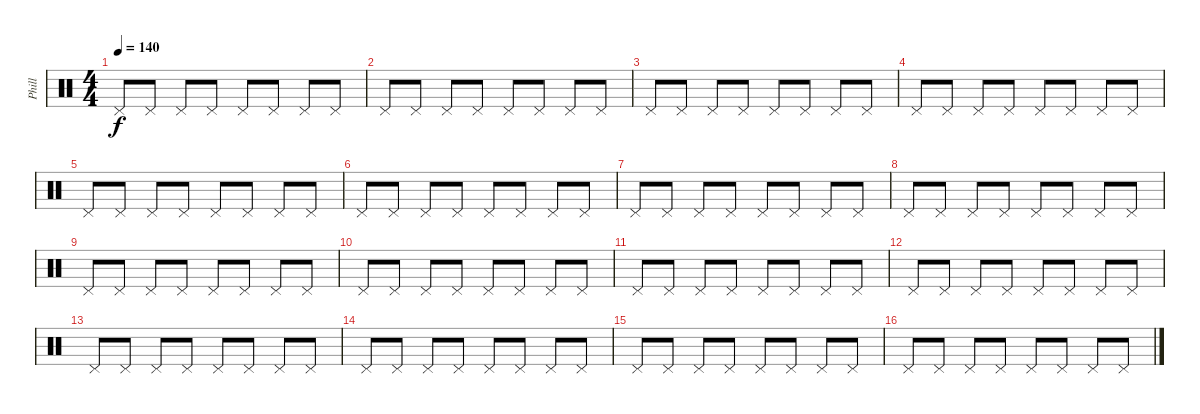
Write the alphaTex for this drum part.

\track ("Phill" "Phill") {instrument percussion}
\staff {score}
\articulation defaults
\ts (4 4)
\tempo 140
\clef neutral
\ks c "Pedal Hi-Hat (hit)".8{dy f} "Pedal Hi-Hat (hit)".8 "Pedal Hi-Hat (hit)".8 "Pedal Hi-Hat (hit)".8 "Pedal Hi-Hat (hit)".8 "Pedal Hi-Hat (hit)".8 "Pedal Hi-Hat (hit)".8 "Pedal Hi-Hat (hit)".8
|
"Pedal Hi-Hat (hit)".8 "Pedal Hi-Hat (hit)".8 "Pedal Hi-Hat (hit)".8 "Pedal Hi-Hat (hit)".8 "Pedal Hi-Hat (hit)".8 "Pedal Hi-Hat (hit)".8 "Pedal Hi-Hat (hit)".8 "Pedal Hi-Hat (hit)".8 |
"Pedal Hi-Hat (hit)".8 "Pedal Hi-Hat (hit)".8 "Pedal Hi-Hat (hit)".8 "Pedal Hi-Hat (hit)".8 "Pedal Hi-Hat (hit)".8 "Pedal Hi-Hat (hit)".8 "Pedal Hi-Hat (hit)".8 "Pedal Hi-Hat (hit)".8 |
"Pedal Hi-Hat (hit)".8 "Pedal Hi-Hat (hit)".8 "Pedal Hi-Hat (hit)".8 "Pedal Hi-Hat (hit)".8 "Pedal Hi-Hat (hit)".8 "Pedal Hi-Hat (hit)".8 "Pedal Hi-Hat (hit)".8 "Pedal Hi-Hat (hit)".8 |
"Pedal Hi-Hat (hit)".8 "Pedal Hi-Hat (hit)".8 "Pedal Hi-Hat (hit)".8 "Pedal Hi-Hat (hit)".8 "Pedal Hi-Hat (hit)".8 "Pedal Hi-Hat (hit)".8 "Pedal Hi-Hat (hit)".8 "Pedal Hi-Hat (hit)".8 |
"Pedal Hi-Hat (hit)".8 "Pedal Hi-Hat (hit)".8 "Pedal Hi-Hat (hit)".8 "Pedal Hi-Hat (hit)".8 "Pedal Hi-Hat (hit)".8 "Pedal Hi-Hat (hit)".8 "Pedal Hi-Hat (hit)".8 "Pedal Hi-Hat (hit)".8 |
"Pedal Hi-Hat (hit)".8 "Pedal Hi-Hat (hit)".8 "Pedal Hi-Hat (hit)".8 "Pedal Hi-Hat (hit)".8 "Pedal Hi-Hat (hit)".8 "Pedal Hi-Hat (hit)".8 "Pedal Hi-Hat (hit)".8 "Pedal Hi-Hat (hit)".8 |
"Pedal Hi-Hat (hit)".8 "Pedal Hi-Hat (hit)".8 "Pedal Hi-Hat (hit)".8 "Pedal Hi-Hat (hit)".8 "Pedal Hi-Hat (hit)".8 "Pedal Hi-Hat (hit)".8 "Pedal Hi-Hat (hit)".8 "Pedal Hi-Hat (hit)".8 |
"Pedal Hi-Hat (hit)".8 "Pedal Hi-Hat (hit)".8 "Pedal Hi-Hat (hit)".8 "Pedal Hi-Hat (hit)".8 "Pedal Hi-Hat (hit)".8 "Pedal Hi-Hat (hit)".8 "Pedal Hi-Hat (hit)".8 "Pedal Hi-Hat (hit)".8 |
"Pedal Hi-Hat (hit)".8 "Pedal Hi-Hat (hit)".8 "Pedal Hi-Hat (hit)".8 "Pedal Hi-Hat (hit)".8 "Pedal Hi-Hat (hit)".8 "Pedal Hi-Hat (hit)".8 "Pedal Hi-Hat (hit)".8 "Pedal Hi-Hat (hit)".8 |
"Pedal Hi-Hat (hit)".8 "Pedal Hi-Hat (hit)".8 "Pedal Hi-Hat (hit)".8 "Pedal Hi-Hat (hit)".8 "Pedal Hi-Hat (hit)".8 "Pedal Hi-Hat (hit)".8 "Pedal Hi-Hat (hit)".8 "Pedal Hi-Hat (hit)".8 |
"Pedal Hi-Hat (hit)".8 "Pedal Hi-Hat (hit)".8 "Pedal Hi-Hat (hit)".8 "Pedal Hi-Hat (hit)".8 "Pedal Hi-Hat (hit)".8 "Pedal Hi-Hat (hit)".8 "Pedal Hi-Hat (hit)".8 "Pedal Hi-Hat (hit)".8 |
"Pedal Hi-Hat (hit)".8 "Pedal Hi-Hat (hit)".8 "Pedal Hi-Hat (hit)".8 "Pedal Hi-Hat (hit)".8 "Pedal Hi-Hat (hit)".8 "Pedal Hi-Hat (hit)".8 "Pedal Hi-Hat (hit)".8 "Pedal Hi-Hat (hit)".8 |
"Pedal Hi-Hat (hit)".8 "Pedal Hi-Hat (hit)".8 "Pedal Hi-Hat (hit)".8 "Pedal Hi-Hat (hit)".8 "Pedal Hi-Hat (hit)".8 "Pedal Hi-Hat (hit)".8 "Pedal Hi-Hat (hit)".8 "Pedal Hi-Hat (hit)".8 |
"Pedal Hi-Hat (hit)".8 "Pedal Hi-Hat (hit)".8 "Pedal Hi-Hat (hit)".8 "Pedal Hi-Hat (hit)".8 "Pedal Hi-Hat (hit)".8 "Pedal Hi-Hat (hit)".8 "Pedal Hi-Hat (hit)".8 "Pedal Hi-Hat (hit)".8 |
"Pedal Hi-Hat (hit)".8 "Pedal Hi-Hat (hit)".8 "Pedal Hi-Hat (hit)".8 "Pedal Hi-Hat (hit)".8 "Pedal Hi-Hat (hit)".8 "Pedal Hi-Hat (hit)".8 "Pedal Hi-Hat (hit)".8 "Pedal Hi-Hat (hit)".8
